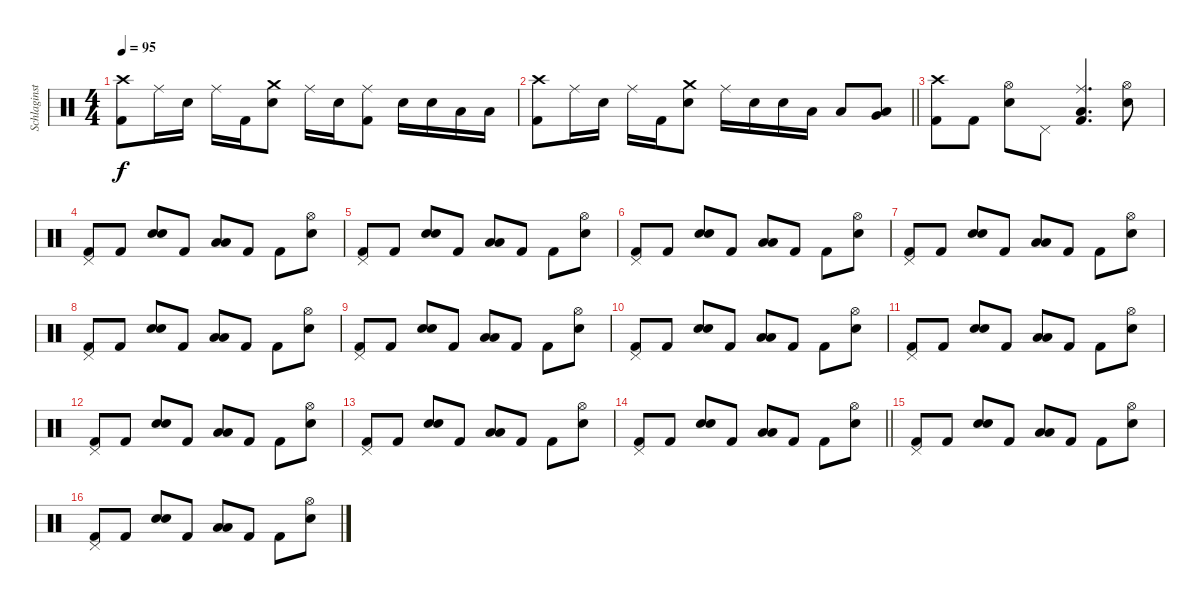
\track ("Schlaginstrumente - Auswahl" "Schlaginst") {instrument percussion}
\staff {score}
\articulation defaults
\ts (4 4)
\tempo 95
\clef neutral
\ks c
("Crash high (hit)" "Kick (hit) 2").8{dy f} "Ride (middle)".16 "Snare (hit) 2".16 "Ride (middle)".16 "Kick (hit) 2".16 ("Crash medium (hit)" "Snare (hit) 2").8 "Ride (middle)".16 "Snare (hit) 2".16 ("Ride (middle)" "Kick (hit) 2").8 "Snare (hit) 2".16 "Snare (hit) 2".16 "Low Tom (hit)".16 "Low Tom (hit)".16 |
\barLineRight lightlight
("Crash high (hit)" "Kick (hit) 2").8 "Ride (middle)".16 "Snare (hit) 2".16 "Ride (middle)".16 "Kick (hit) 2".16 ("Crash medium (hit)" "Snare (hit) 2").8 "Ride (middle)".16 "Snare (hit) 2".16 "Snare (hit) 2".16 "Low Tom (hit)".16 "Low Floor Tom (hit)".8 ("Low Tom (hit)" "Very Low Tom (hit)").8 |
("Crash high (hit)" "Kick (hit) 2").8 "Kick (hit) 2".8 ("Hi-Hat (open)" "Snare (hit) 2").8 "Pedal Hi-Hat (hit)".8 ("Ride (middle)" "Low Floor Tom (hit)" "Kick (hit) 2").4{d} ("Hi-Hat (open)" "Snare (hit) 2").8 |
("Pedal Hi-Hat (hit)" "Kick (hit) 2").8 "Kick (hit) 2".8 ("Snare (hit) 2" "Snare (hit) 2").8{bd 240} "Kick (hit) 2".8 ("Low Tom (hit)" "Low Floor Tom (hit)").8 "Kick (hit) 2".8 "Kick (hit) 2".8 ("Hi-Hat (open)" "Snare (hit) 2").8 |
("Pedal Hi-Hat (hit)" "Kick (hit) 2").8 "Kick (hit) 2".8 ("Snare (hit) 2" "Snare (hit) 2").8{bd 240} "Kick (hit) 2".8 ("Low Tom (hit)" "Low Floor Tom (hit)").8 "Kick (hit) 2".8 "Kick (hit) 2".8 ("Hi-Hat (open)" "Snare (hit) 2").8 |
("Pedal Hi-Hat (hit)" "Kick (hit) 2").8 "Kick (hit) 2".8 ("Snare (hit) 2" "Snare (hit) 2").8{bd 240} "Kick (hit) 2".8 ("Low Tom (hit)" "Low Floor Tom (hit)").8 "Kick (hit) 2".8 "Kick (hit) 2".8 ("Hi-Hat (open)" "Snare (hit) 2").8 |
("Pedal Hi-Hat (hit)" "Kick (hit) 2").8 "Kick (hit) 2".8 ("Snare (hit) 2" "Snare (hit) 2").8{bd 240} "Kick (hit) 2".8 ("Low Tom (hit)" "Low Floor Tom (hit)").8 "Kick (hit) 2".8 "Kick (hit) 2".8 ("Hi-Hat (open)" "Snare (hit) 2").8 |
("Pedal Hi-Hat (hit)" "Kick (hit) 2").8 "Kick (hit) 2".8 ("Snare (hit) 2" "Snare (hit) 2").8{bd 240} "Kick (hit) 2".8 ("Low Tom (hit)" "Low Floor Tom (hit)").8 "Kick (hit) 2".8 "Kick (hit) 2".8 ("Hi-Hat (open)" "Snare (hit) 2").8 |
("Pedal Hi-Hat (hit)" "Kick (hit) 2").8 "Kick (hit) 2".8 ("Snare (hit) 2" "Snare (hit) 2").8{bd 240} "Kick (hit) 2".8 ("Low Tom (hit)" "Low Floor Tom (hit)").8 "Kick (hit) 2".8 "Kick (hit) 2".8 ("Hi-Hat (open)" "Snare (hit) 2").8 |
("Pedal Hi-Hat (hit)" "Kick (hit) 2").8 "Kick (hit) 2".8 ("Snare (hit) 2" "Snare (hit) 2").8{bd 240} "Kick (hit) 2".8 ("Low Tom (hit)" "Low Floor Tom (hit)").8 "Kick (hit) 2".8 "Kick (hit) 2".8 ("Hi-Hat (open)" "Snare (hit) 2").8 |
("Pedal Hi-Hat (hit)" "Kick (hit) 2").8 "Kick (hit) 2".8 ("Snare (hit) 2" "Snare (hit) 2").8{bd 240} "Kick (hit) 2".8 ("Low Tom (hit)" "Low Floor Tom (hit)").8 "Kick (hit) 2".8 "Kick (hit) 2".8 ("Hi-Hat (open)" "Snare (hit) 2").8 |
("Pedal Hi-Hat (hit)" "Kick (hit) 2").8 "Kick (hit) 2".8 ("Snare (hit) 2" "Snare (hit) 2").8{bd 240} "Kick (hit) 2".8 ("Low Tom (hit)" "Low Floor Tom (hit)").8 "Kick (hit) 2".8 "Kick (hit) 2".8 ("Hi-Hat (open)" "Snare (hit) 2").8 |
("Pedal Hi-Hat (hit)" "Kick (hit) 2").8 "Kick (hit) 2".8 ("Snare (hit) 2" "Snare (hit) 2").8{bd 240} "Kick (hit) 2".8 ("Low Tom (hit)" "Low Floor Tom (hit)").8 "Kick (hit) 2".8 "Kick (hit) 2".8 ("Hi-Hat (open)" "Snare (hit) 2").8 |
\barLineRight lightlight
("Pedal Hi-Hat (hit)" "Kick (hit) 2").8 "Kick (hit) 2".8 ("Snare (hit) 2" "Snare (hit) 2").8{bd 240} "Kick (hit) 2".8 ("Low Tom (hit)" "Low Floor Tom (hit)").8 "Kick (hit) 2".8 "Kick (hit) 2".8 ("Hi-Hat (open)" "Snare (hit) 2").8 |
("Pedal Hi-Hat (hit)" "Kick (hit) 2").8 "Kick (hit) 2".8 ("Snare (hit) 2" "Snare (hit) 2").8{bd 240} "Kick (hit) 2".8 ("Low Tom (hit)" "Low Floor Tom (hit)").8 "Kick (hit) 2".8 "Kick (hit) 2".8 ("Hi-Hat (open)" "Snare (hit) 2").8 |
("Pedal Hi-Hat (hit)" "Kick (hit) 2").8 "Kick (hit) 2".8 ("Snare (hit) 2" "Snare (hit) 2").8{bd 240} "Kick (hit) 2".8 ("Low Tom (hit)" "Low Floor Tom (hit)").8 "Kick (hit) 2".8 "Kick (hit) 2".8 ("Hi-Hat (open)" "Snare (hit) 2").8
